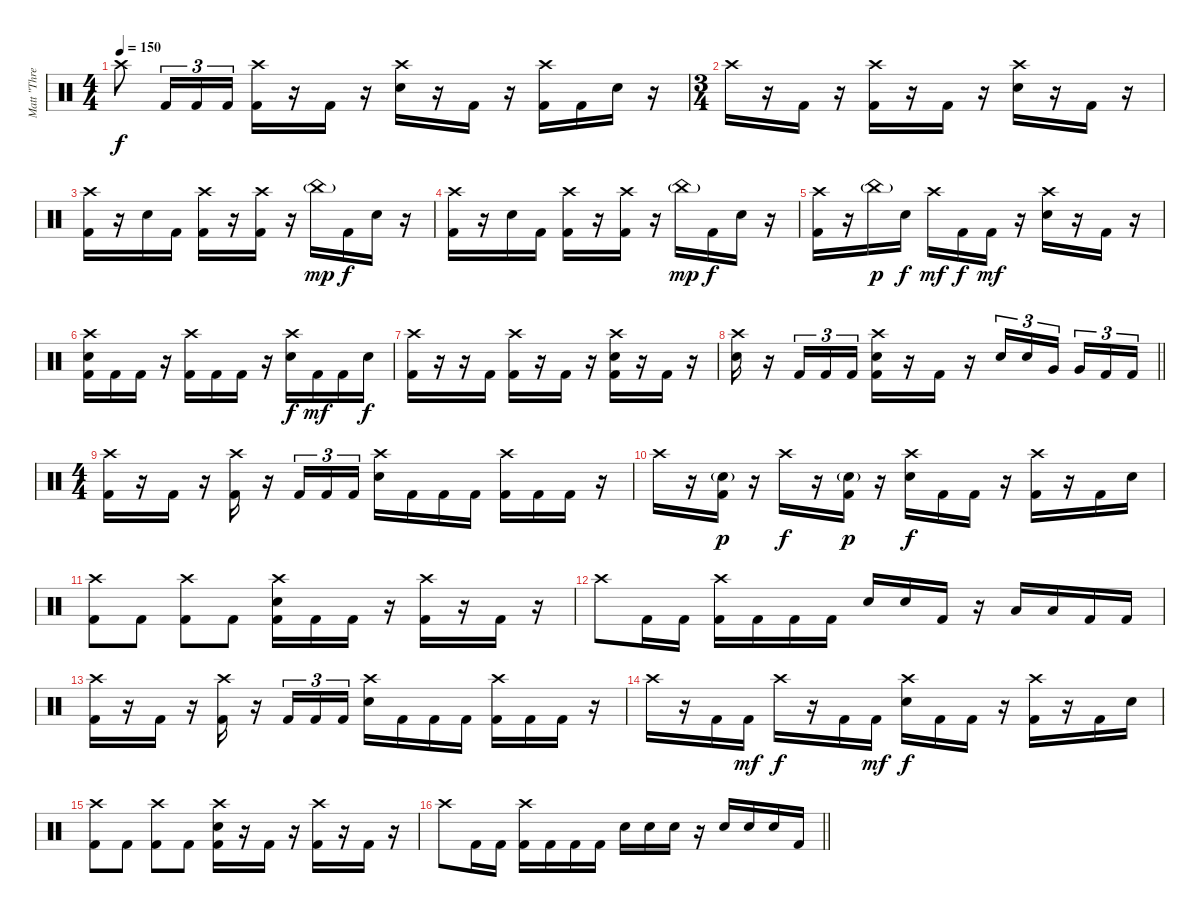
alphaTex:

\track ("Matt \"Three Cymbals/Swing\" Halpern" "Matt \"Thre") {instrument percussion}
\staff {score}
\articulation defaults
\ts (4 4)
\tempo 150
\clef neutral
\ks c "Crash high (hit)".8{dy f} "Kick (hit) 2".16{tu (3 2)} "Kick (hit) 2".16{tu (3 2)} "Kick (hit) 2".16{tu (3 2)}
("Crash high (hit)" "Kick (hit) 2").16 r.16 "Kick (hit) 2".16 r.16 ("Crash high (hit)" "Snare (hit) 2").16 r.16 "Kick (hit) 2".16 r.16 ("Crash high (hit)" "Kick (hit) 2").16 "Kick (hit) 2".16 "Snare (hit) 2".16 r.16 |
\ts (3 4)
"Crash high (hit)".16 r.16 "Kick (hit) 2".16 r.16 ("Crash high (hit)" "Kick (hit) 2").16 r.16 "Kick (hit) 2".16 r.16 ("Crash high (hit)" "Snare (hit) 2").16 r.16 "Kick (hit) 2".16 r.16 |
("Crash high (hit)" "Kick (hit) 2").16 r.16 "Snare (hit) 2".16 "Kick (hit) 2".16 ("Crash high (hit)" "Kick (hit) 2").16 r.16 ("Crash high (hit)" "Kick (hit) 2").16 r.16 "China (hit)"{g}.16{dy mp} "Kick (hit) 2".16{dy f} "Snare (hit) 2".16 r.16 |
("Crash high (hit)" "Kick (hit) 2").16 r.16 "Snare (hit) 2".16 "Kick (hit) 2".16 ("Crash high (hit)" "Kick (hit) 2").16 r.16 ("Crash high (hit)" "Kick (hit) 2").16 r.16 "China (hit)"{g}.16{dy mp} "Kick (hit) 2".16{dy f} "Snare (hit) 2".16 r.16 |
("Crash high (hit)" "Kick (hit) 2").16 r.16 "China (hit)"{g}.16{dy p} "Snare (hit) 2".16{dy f} "Crash high (hit)".16{dy mf} "Kick (hit) 2".16{dy f} "Kick (hit) 2".16{dy mf} r.16 ("Crash high (hit)" "Snare (hit) 2").16 r.16 "Kick (hit) 2".16 r.16 |
("Crash high (hit)" "Snare (hit) 2" "Kick (hit) 2").16 "Kick (hit) 2".16 "Kick (hit) 2".16 r.16 ("Crash high (hit)" "Kick (hit) 2").16 "Kick (hit) 2".16 "Kick (hit) 2".16 r.16 ("Crash high (hit)" "Snare (hit) 2").16{dy f} "Kick (hit) 2".16{dy mf} "Kick (hit) 2".16 "Snare (hit) 2".16{dy f} |
("Crash high (hit)" "Kick (hit) 2").16 r.16 r.16 "Kick (hit) 2".16 ("Crash high (hit)" "Kick (hit) 2").16 r.16 "Kick (hit) 2".16 r.16 ("Crash high (hit)" "Snare (hit) 2" "Kick (hit) 2").16 r.16 "Kick (hit) 2".16 r.16 |
\barLineRight lightlight
("Crash high (hit)" "Snare (hit) 2").16 r.16 "Kick (hit) 2".16{tu (3 2)} "Kick (hit) 2".16{tu (3 2)} "Kick (hit) 2".16{tu (3 2)} ("Crash high (hit)" "Snare (hit) 2" "Kick (hit) 2").16 r.16 "Kick (hit) 2".16 r.16 "Snare (hit) 2".16{tu (3 2)} "Snare (hit) 2".16{tu (3 2)} "Very Low Tom (hit)".16{tu (3 2) beam splitsecondary} "Very Low Tom (hit)".16{tu (3 2)} "Kick (hit) 2".16{tu (3 2)} "Kick (hit) 2".16{tu (3 2)} |
\ts (4 4)
("Crash high (hit)" "Kick (hit) 2").16 r.16 "Kick (hit) 2".16 r.16 ("Crash high (hit)" "Kick (hit) 2").16 r.16 "Kick (hit) 2".16{tu (3 2)} "Kick (hit) 2".16{tu (3 2)} "Kick (hit) 2".16{tu (3 2)} ("Crash high (hit)" "Snare (hit) 2").16 "Kick (hit) 2".16 "Kick (hit) 2".16 "Kick (hit) 2".16 ("Crash high (hit)" "Kick (hit) 2").16 "Kick (hit) 2".16 "Kick (hit) 2".16 r.16 |
"Crash high (hit)".16 r.16 ("Snare (hit) 2"{g} "Kick (hit) 2").16{dy p} r.16 "Crash high (hit)".16{dy f} r.16 ("Snare (hit) 2"{g} "Kick (hit) 2").16{dy p} r.16 ("Crash high (hit)" "Snare (hit) 2").16{dy f} "Kick (hit) 2".16 "Kick (hit) 2".16 r.16 ("Crash high (hit)" "Kick (hit) 2").16 r.16 "Kick (hit) 2".16 "Snare (hit) 2".16 |
("Crash high (hit)" "Kick (hit) 2").8 "Kick (hit) 2".8 ("Crash high (hit)" "Kick (hit) 2").8 "Kick (hit) 2".8 ("Crash high (hit)" "Snare (hit) 2" "Kick (hit) 2").16 "Kick (hit) 2".16 "Kick (hit) 2".16 r.16 ("Crash high (hit)" "Kick (hit) 2").16 r.16 "Kick (hit) 2".16 r.16 |
"Crash high (hit)".8 "Kick (hit) 2".16 "Kick (hit) 2".16 ("Crash high (hit)" "Kick (hit) 2").16 "Kick (hit) 2".16 "Kick (hit) 2".16 "Kick (hit) 2".16 "Snare (hit) 2".16 "Snare (hit) 2".16 "Kick (hit) 2".16 r.16 "Low Floor Tom (hit)".16 "Low Floor Tom (hit)".16 "Kick (hit) 2".16 "Kick (hit) 2".16 |
("Crash high (hit)" "Kick (hit) 2").16 r.16 "Kick (hit) 2".16 r.16 ("Crash high (hit)" "Kick (hit) 2").16 r.16 "Kick (hit) 2".16{tu (3 2)} "Kick (hit) 2".16{tu (3 2)} "Kick (hit) 2".16{tu (3 2)} ("Crash high (hit)" "Snare (hit) 2").16 "Kick (hit) 2".16 "Kick (hit) 2".16 "Kick (hit) 2".16 ("Crash high (hit)" "Kick (hit) 2").16 "Kick (hit) 2".16 "Kick (hit) 2".16 r.16 |
"Crash high (hit)".16 r.16 "Kick (hit) 2".16 "Kick (hit) 2".16{dy mf} "Crash high (hit)".16{dy f} r.16 "Kick (hit) 2".16 "Kick (hit) 2".16{dy mf} ("Crash high (hit)" "Snare (hit) 2").16{dy f} "Kick (hit) 2".16 "Kick (hit) 2".16 r.16 ("Crash high (hit)" "Kick (hit) 2").16 r.16 "Kick (hit) 2".16 "Snare (hit) 2".16 |
("Crash high (hit)" "Kick (hit) 2").8 "Kick (hit) 2".8 ("Crash high (hit)" "Kick (hit) 2").8 "Kick (hit) 2".8 ("Crash high (hit)" "Snare (hit) 2" "Kick (hit) 2").16 r.16 "Kick (hit) 2".16 r.16 ("Crash high (hit)" "Kick (hit) 2").16 r.16 "Kick (hit) 2".16 r.16 |
\barLineRight lightlight "Crash high (hit)".8 "Kick (hit) 2".16 "Kick (hit) 2".16
("Crash high (hit)" "Kick (hit) 2").16 "Kick (hit) 2".16 "Kick (hit) 2".16 "Kick (hit) 2".16 "Snare (hit) 2".16 "Snare (hit) 2".16 "Snare (hit) 2".16 r.16 "Snare (hit) 2".16 "Snare (hit) 2".16 "Snare (hit) 2".16 "Kick (hit) 2".16
